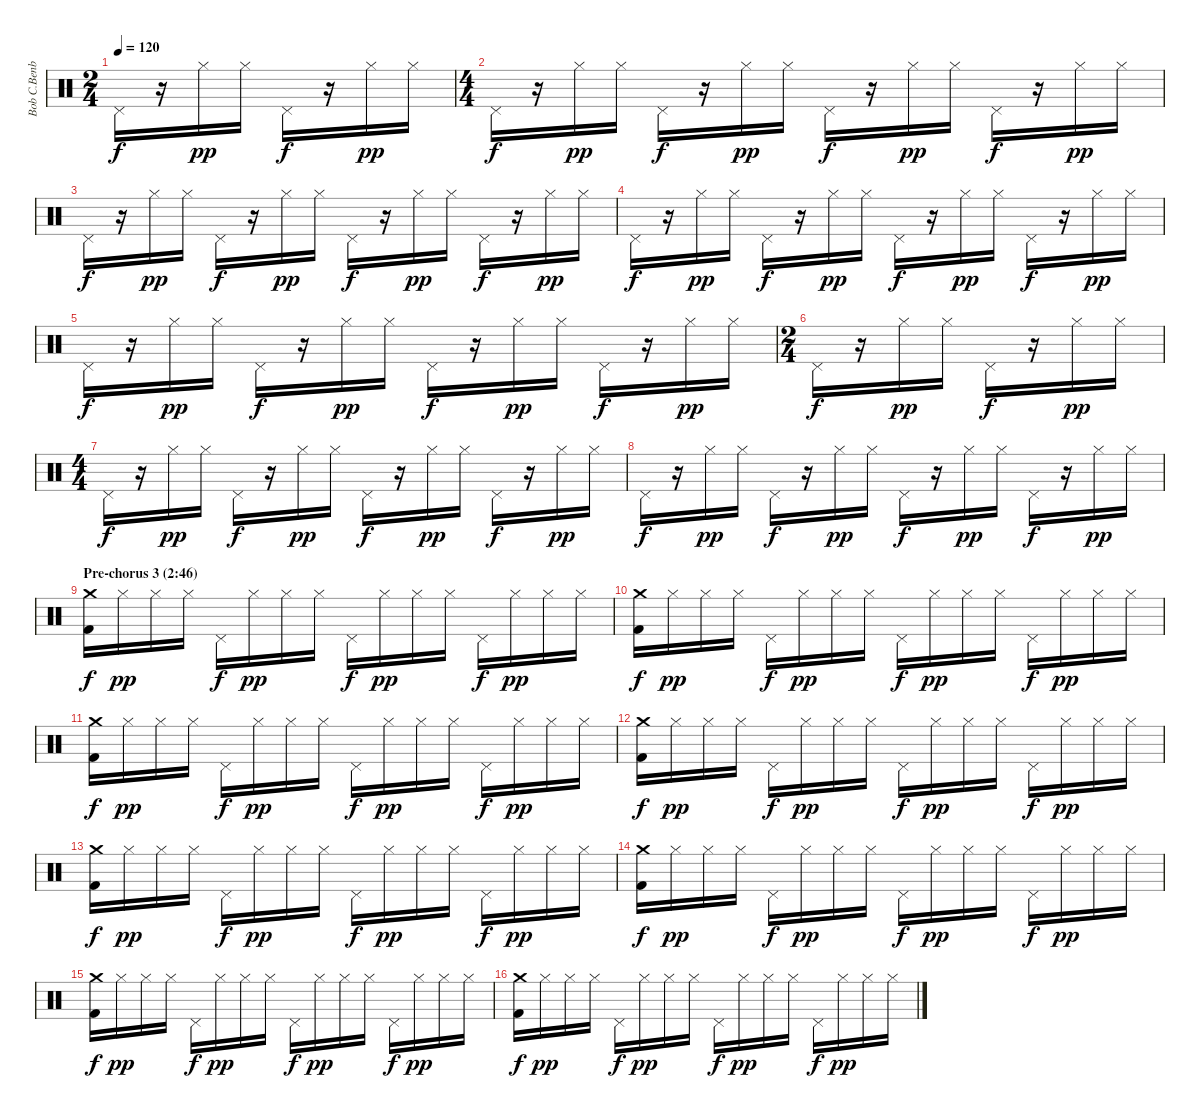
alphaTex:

\track ("Bob C.Benberg (drums)" "Bob C.Benb") {instrument percussion}
\staff {score}
\articulation defaults
\ts (2 4)
\tempo 120
\clef neutral
\ks c "Pedal Hi-Hat (hit)".16{dy f}
r.16 "Hi-Hat (closed)".16{dy pp} "Hi-Hat (closed)".16 "Pedal Hi-Hat (hit)".16{dy f} r.16 "Hi-Hat (closed)".16{dy pp} "Hi-Hat (closed)".16 |
\ts (4 4)
"Pedal Hi-Hat (hit)".16{dy f} r.16 "Hi-Hat (closed)".16{dy pp} "Hi-Hat (closed)".16 "Pedal Hi-Hat (hit)".16{dy f} r.16 "Hi-Hat (closed)".16{dy pp} "Hi-Hat (closed)".16 "Pedal Hi-Hat (hit)".16{dy f} r.16 "Hi-Hat (closed)".16{dy pp} "Hi-Hat (closed)".16 "Pedal Hi-Hat (hit)".16{dy f} r.16 "Hi-Hat (closed)".16{dy pp} "Hi-Hat (closed)".16 |
"Pedal Hi-Hat (hit)".16{dy f} r.16 "Hi-Hat (closed)".16{dy pp} "Hi-Hat (closed)".16 "Pedal Hi-Hat (hit)".16{dy f} r.16 "Hi-Hat (closed)".16{dy pp} "Hi-Hat (closed)".16 "Pedal Hi-Hat (hit)".16{dy f} r.16 "Hi-Hat (closed)".16{dy pp} "Hi-Hat (closed)".16 "Pedal Hi-Hat (hit)".16{dy f} r.16 "Hi-Hat (closed)".16{dy pp} "Hi-Hat (closed)".16 |
"Pedal Hi-Hat (hit)".16{dy f} r.16 "Hi-Hat (closed)".16{dy pp} "Hi-Hat (closed)".16 "Pedal Hi-Hat (hit)".16{dy f} r.16 "Hi-Hat (closed)".16{dy pp} "Hi-Hat (closed)".16 "Pedal Hi-Hat (hit)".16{dy f} r.16 "Hi-Hat (closed)".16{dy pp} "Hi-Hat (closed)".16 "Pedal Hi-Hat (hit)".16{dy f} r.16 "Hi-Hat (closed)".16{dy pp} "Hi-Hat (closed)".16 |
"Pedal Hi-Hat (hit)".16{dy f} r.16 "Hi-Hat (closed)".16{dy pp} "Hi-Hat (closed)".16 "Pedal Hi-Hat (hit)".16{dy f} r.16 "Hi-Hat (closed)".16{dy pp} "Hi-Hat (closed)".16 "Pedal Hi-Hat (hit)".16{dy f} r.16 "Hi-Hat (closed)".16{dy pp} "Hi-Hat (closed)".16 "Pedal Hi-Hat (hit)".16{dy f} r.16 "Hi-Hat (closed)".16{dy pp} "Hi-Hat (closed)".16 |
\ts (2 4)
"Pedal Hi-Hat (hit)".16{dy f} r.16 "Hi-Hat (closed)".16{dy pp} "Hi-Hat (closed)".16 "Pedal Hi-Hat (hit)".16{dy f} r.16 "Hi-Hat (closed)".16{dy pp} "Hi-Hat (closed)".16 |
\ts (4 4)
"Pedal Hi-Hat (hit)".16{dy f} r.16 "Hi-Hat (closed)".16{dy pp} "Hi-Hat (closed)".16 "Pedal Hi-Hat (hit)".16{dy f} r.16 "Hi-Hat (closed)".16{dy pp} "Hi-Hat (closed)".16 "Pedal Hi-Hat (hit)".16{dy f} r.16 "Hi-Hat (closed)".16{dy pp} "Hi-Hat (closed)".16 "Pedal Hi-Hat (hit)".16{dy f} r.16 "Hi-Hat (closed)".16{dy pp} "Hi-Hat (closed)".16 |
"Pedal Hi-Hat (hit)".16{dy f} r.16 "Hi-Hat (closed)".16{dy pp} "Hi-Hat (closed)".16 "Pedal Hi-Hat (hit)".16{dy f} r.16 "Hi-Hat (closed)".16{dy pp} "Hi-Hat (closed)".16 "Pedal Hi-Hat (hit)".16{dy f} r.16 "Hi-Hat (closed)".16{dy pp} "Hi-Hat (closed)".16 "Pedal Hi-Hat (hit)".16{dy f} r.16 "Hi-Hat (closed)".16{dy pp} "Hi-Hat (closed)".16 |
\section ("" "Pre-chorus 3 (2:46)")
("Crash medium (hit)" "Kick (hit) 2").16{dy f} "Hi-Hat (closed)".16{dy pp} "Hi-Hat (closed)".16 "Hi-Hat (closed)".16 "Pedal Hi-Hat (hit)".16{dy f} "Hi-Hat (closed)".16{dy pp} "Hi-Hat (closed)".16 "Hi-Hat (closed)".16 "Pedal Hi-Hat (hit)".16{dy f} "Hi-Hat (closed)".16{dy pp} "Hi-Hat (closed)".16 "Hi-Hat (closed)".16 "Pedal Hi-Hat (hit)".16{dy f} "Hi-Hat (closed)".16{dy pp} "Hi-Hat (closed)".16 "Hi-Hat (closed)".16 |
("Crash medium (hit)" "Kick (hit) 2").16{dy f} "Hi-Hat (closed)".16{dy pp} "Hi-Hat (closed)".16 "Hi-Hat (closed)".16 "Pedal Hi-Hat (hit)".16{dy f} "Hi-Hat (closed)".16{dy pp} "Hi-Hat (closed)".16 "Hi-Hat (closed)".16 "Pedal Hi-Hat (hit)".16{dy f} "Hi-Hat (closed)".16{dy pp} "Hi-Hat (closed)".16 "Hi-Hat (closed)".16 "Pedal Hi-Hat (hit)".16{dy f} "Hi-Hat (closed)".16{dy pp} "Hi-Hat (closed)".16 "Hi-Hat (closed)".16 |
("Crash medium (hit)" "Kick (hit) 2").16{dy f} "Hi-Hat (closed)".16{dy pp} "Hi-Hat (closed)".16 "Hi-Hat (closed)".16 "Pedal Hi-Hat (hit)".16{dy f} "Hi-Hat (closed)".16{dy pp} "Hi-Hat (closed)".16 "Hi-Hat (closed)".16 "Pedal Hi-Hat (hit)".16{dy f} "Hi-Hat (closed)".16{dy pp} "Hi-Hat (closed)".16 "Hi-Hat (closed)".16 "Pedal Hi-Hat (hit)".16{dy f} "Hi-Hat (closed)".16{dy pp} "Hi-Hat (closed)".16 "Hi-Hat (closed)".16 |
("Crash medium (hit)" "Kick (hit) 2").16{dy f} "Hi-Hat (closed)".16{dy pp} "Hi-Hat (closed)".16 "Hi-Hat (closed)".16 "Pedal Hi-Hat (hit)".16{dy f} "Hi-Hat (closed)".16{dy pp} "Hi-Hat (closed)".16 "Hi-Hat (closed)".16 "Pedal Hi-Hat (hit)".16{dy f} "Hi-Hat (closed)".16{dy pp} "Hi-Hat (closed)".16 "Hi-Hat (closed)".16 "Pedal Hi-Hat (hit)".16{dy f} "Hi-Hat (closed)".16{dy pp} "Hi-Hat (closed)".16 "Hi-Hat (closed)".16 |
("Crash medium (hit)" "Kick (hit) 2").16{dy f} "Hi-Hat (closed)".16{dy pp} "Hi-Hat (closed)".16 "Hi-Hat (closed)".16 "Pedal Hi-Hat (hit)".16{dy f} "Hi-Hat (closed)".16{dy pp} "Hi-Hat (closed)".16 "Hi-Hat (closed)".16 "Pedal Hi-Hat (hit)".16{dy f} "Hi-Hat (closed)".16{dy pp} "Hi-Hat (closed)".16 "Hi-Hat (closed)".16 "Pedal Hi-Hat (hit)".16{dy f} "Hi-Hat (closed)".16{dy pp} "Hi-Hat (closed)".16 "Hi-Hat (closed)".16 |
("Crash medium (hit)" "Kick (hit) 2").16{dy f} "Hi-Hat (closed)".16{dy pp} "Hi-Hat (closed)".16 "Hi-Hat (closed)".16 "Pedal Hi-Hat (hit)".16{dy f} "Hi-Hat (closed)".16{dy pp} "Hi-Hat (closed)".16 "Hi-Hat (closed)".16 "Pedal Hi-Hat (hit)".16{dy f} "Hi-Hat (closed)".16{dy pp} "Hi-Hat (closed)".16 "Hi-Hat (closed)".16 "Pedal Hi-Hat (hit)".16{dy f} "Hi-Hat (closed)".16{dy pp} "Hi-Hat (closed)".16 "Hi-Hat (closed)".16 |
("Crash medium (hit)" "Kick (hit) 2").16{dy f} "Hi-Hat (closed)".16{dy pp} "Hi-Hat (closed)".16 "Hi-Hat (closed)".16 "Pedal Hi-Hat (hit)".16{dy f} "Hi-Hat (closed)".16{dy pp} "Hi-Hat (closed)".16 "Hi-Hat (closed)".16 "Pedal Hi-Hat (hit)".16{dy f} "Hi-Hat (closed)".16{dy pp} "Hi-Hat (closed)".16 "Hi-Hat (closed)".16 "Pedal Hi-Hat (hit)".16{dy f} "Hi-Hat (closed)".16{dy pp} "Hi-Hat (closed)".16 "Hi-Hat (closed)".16 |
("Crash medium (hit)" "Kick (hit) 2").16{dy f} "Hi-Hat (closed)".16{dy pp} "Hi-Hat (closed)".16 "Hi-Hat (closed)".16 "Pedal Hi-Hat (hit)".16{dy f} "Hi-Hat (closed)".16{dy pp} "Hi-Hat (closed)".16 "Hi-Hat (closed)".16 "Pedal Hi-Hat (hit)".16{dy f} "Hi-Hat (closed)".16{dy pp} "Hi-Hat (closed)".16 "Hi-Hat (closed)".16 "Pedal Hi-Hat (hit)".16{dy f} "Hi-Hat (closed)".16{dy pp} "Hi-Hat (closed)".16 "Hi-Hat (closed)".16
